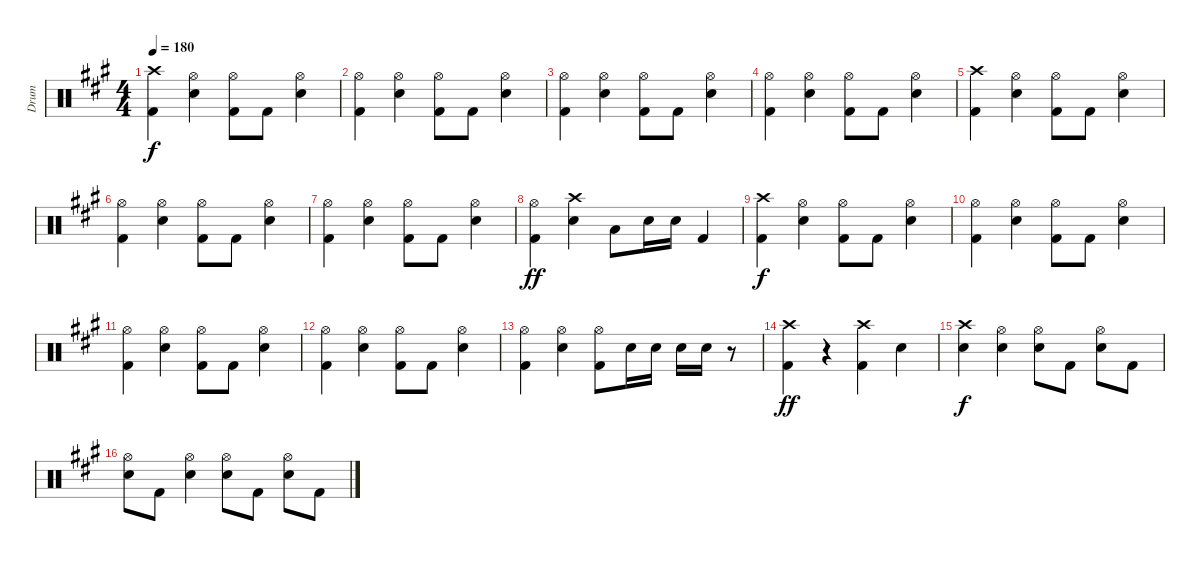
\track ("Drum" "Drum") {instrument percussion}
\staff {score}
\articulation defaults
\ts (4 4)
\tempo 180
\clef neutral
\ks a
("Crash high (hit)" "Kick (hit) 2").4{dy f} ("Hi-Hat (open)" "Snare (hit) 2").4 ("Hi-Hat (open)" "Kick (hit) 2").8 "Kick (hit) 2".8 ("Hi-Hat (open)" "Snare (hit) 2").4 |
("Hi-Hat (open)" "Kick (hit) 2").4 ("Hi-Hat (open)" "Snare (hit) 2").4 ("Hi-Hat (open)" "Kick (hit) 2").8 "Kick (hit) 2".8 ("Hi-Hat (open)" "Snare (hit) 2").4 |
("Hi-Hat (open)" "Kick (hit) 2").4 ("Hi-Hat (open)" "Snare (hit) 2").4 ("Hi-Hat (open)" "Kick (hit) 2").8 "Kick (hit) 2".8 ("Hi-Hat (open)" "Snare (hit) 2").4 |
("Hi-Hat (open)" "Kick (hit) 2").4 ("Hi-Hat (open)" "Snare (hit) 2").4 ("Hi-Hat (open)" "Kick (hit) 2").8 "Kick (hit) 2".8 ("Hi-Hat (open)" "Snare (hit) 2").4 |
("Crash high (hit)" "Kick (hit) 2").4 ("Hi-Hat (open)" "Snare (hit) 2").4 ("Hi-Hat (open)" "Kick (hit) 2").8 "Kick (hit) 2".8 ("Hi-Hat (open)" "Snare (hit) 2").4 |
("Hi-Hat (open)" "Kick (hit) 2").4 ("Hi-Hat (open)" "Snare (hit) 2").4 ("Hi-Hat (open)" "Kick (hit) 2").8 "Kick (hit) 2".8 ("Hi-Hat (open)" "Snare (hit) 2").4 |
("Hi-Hat (open)" "Kick (hit) 2").4 ("Hi-Hat (open)" "Snare (hit) 2").4 ("Hi-Hat (open)" "Kick (hit) 2").8 "Kick (hit) 2".8 ("Hi-Hat (open)" "Snare (hit) 2").4 |
("Hi-Hat (open)" "Kick (hit) 2").4{dy ff} ("Crash high (hit)" "Snare (hit) 2").4 "Low Tom (hit)".8 "Snare (hit) 2".16 "Snare (hit) 2".16 "Kick (hit) 2".4 |
("Crash high (hit)" "Kick (hit) 2").4{dy f} ("Hi-Hat (open)" "Snare (hit) 2").4 ("Hi-Hat (open)" "Kick (hit) 2").8 "Kick (hit) 2".8 ("Hi-Hat (open)" "Snare (hit) 2").4 |
("Hi-Hat (open)" "Kick (hit) 2").4 ("Hi-Hat (open)" "Snare (hit) 2").4 ("Hi-Hat (open)" "Kick (hit) 2").8 "Kick (hit) 2".8 ("Hi-Hat (open)" "Snare (hit) 2").4 |
("Hi-Hat (open)" "Kick (hit) 2").4 ("Hi-Hat (open)" "Snare (hit) 2").4 ("Hi-Hat (open)" "Kick (hit) 2").8 "Kick (hit) 2".8 ("Hi-Hat (open)" "Snare (hit) 2").4 |
("Hi-Hat (open)" "Kick (hit) 2").4 ("Hi-Hat (open)" "Snare (hit) 2").4 ("Hi-Hat (open)" "Kick (hit) 2").8 "Kick (hit) 2".8 ("Hi-Hat (open)" "Snare (hit) 2").4 |
("Hi-Hat (open)" "Kick (hit) 2").4 ("Hi-Hat (open)" "Snare (hit) 2").4 ("Hi-Hat (open)" "Kick (hit) 2").8 "Snare (hit) 2".16 "Snare (hit) 2".16 "Snare (hit) 2".16 "Snare (hit) 2".16 r.8 |
("Crash high (hit)" "Kick (hit) 2").4{dy ff} r.4 ("Crash high (hit)" "Kick (hit) 2").4 "Snare (hit) 2".4 |
("Crash high (hit)" "Snare (hit) 2").4{dy f} ("Hi-Hat (open)" "Snare (hit) 2").4 ("Hi-Hat (open)" "Snare (hit) 2").8 "Kick (hit) 2".8 ("Hi-Hat (open)" "Snare (hit) 2").8 "Kick (hit) 2".8 |
("Hi-Hat (open)" "Snare (hit) 2").8 "Kick (hit) 2".8 ("Hi-Hat (open)" "Snare (hit) 2").4 ("Hi-Hat (open)" "Snare (hit) 2").8 "Kick (hit) 2".8 ("Hi-Hat (open)" "Snare (hit) 2").8 "Kick (hit) 2".8
